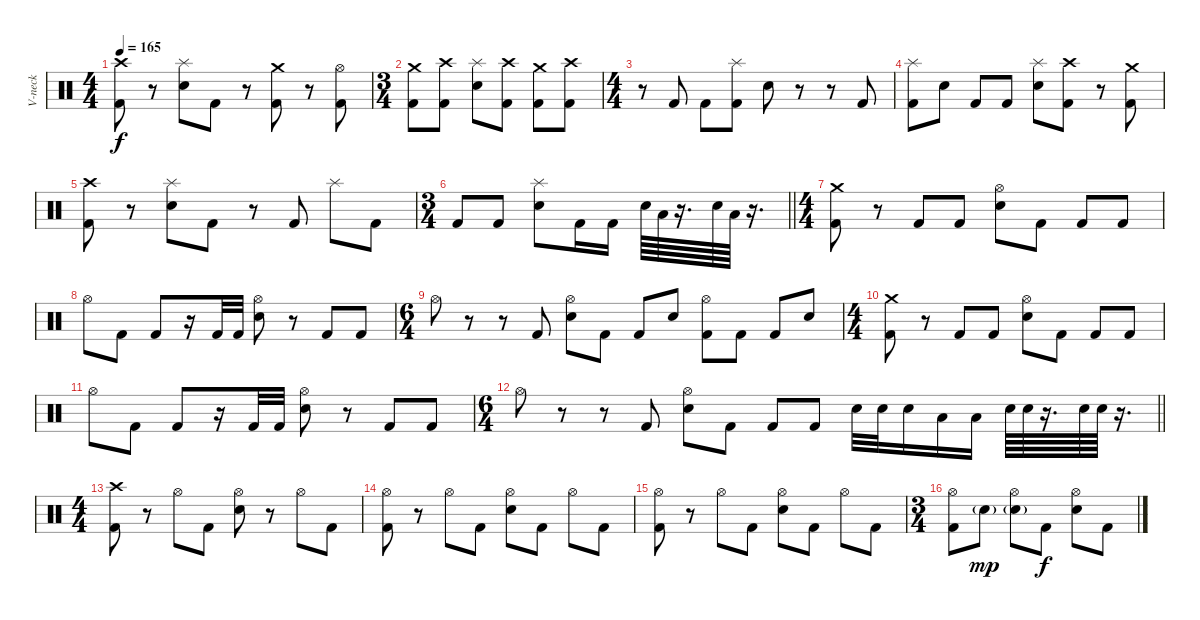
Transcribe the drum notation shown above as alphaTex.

\track ("V-neck" "V-neck") {instrument percussion}
\staff {score}
\articulation defaults
\ts (4 4)
\tempo 165
\clef neutral
\ks c
("Crash high (hit)" "Kick (hit) 2").8{dy f} r.8 ("Splash (hit)" "Electric Snare (hit)").8 "Kick (hit) 2".8 r.8 ("Crash medium (hit)" "Kick (hit) 2").8 r.8 ("Hi-Hat (open)" "Kick (hit) 2").8 |
\ts (3 4)
("Crash medium (hit)" "Kick (hit) 2").8 ("Crash high (hit)" "Kick (hit) 2").8 ("Splash (hit)" "Electric Snare (hit)").8 ("Crash high (hit)" "Kick (hit) 2").8 ("Crash medium (hit)" "Kick (hit) 2").8 ("Crash high (hit)" "Kick (hit) 2").8 |
\ts (4 4)
r.8 "Kick (hit) 2".8 "Kick (hit) 2".8 ("Splash (hit)" "Kick (hit) 2").8 "Electric Snare (hit)".8 r.8 r.8 "Kick (hit) 2".8 |
("Splash (hit)" "Kick (hit) 2").8 "Electric Snare (hit)".8 "Kick (hit) 2".8 "Kick (hit) 2".8 ("Splash (hit)" "Electric Snare (hit)").8 ("Crash high (hit)" "Kick (hit) 2").8 r.8 ("Crash medium (hit)" "Kick (hit) 2").8 |
("Crash high (hit)" "Kick (hit) 2").8 r.8 ("Splash (hit)" "Electric Snare (hit)").8 "Kick (hit) 2".8 r.8 "Kick (hit) 2".8 "Splash (hit)".8 "Kick (hit) 2".8 |
\ts (3 4)
\barLineRight lightlight "Kick (hit) 2".8 "Kick (hit) 2".8
("Splash (hit)" "Electric Snare (hit)").8 "Kick (hit) 2".16 "Kick (hit) 2".16 "Electric Snare (hit)".64 "Low Tom (hit)".64 r.16{d} "Electric Snare (hit)".64 "Low Tom (hit)".64 r.16{d} |
\ts (4 4)
\section ("" "")
("Crash medium (hit)" "Kick (hit) 2").8 r.8 "Kick (hit) 2".8 "Kick (hit) 2".8 ("Hi-Hat (open)" "Electric Snare (hit)").8 "Kick (hit) 2".8 "Kick (hit) 2".8 "Kick (hit) 2".8 |
"Hi-Hat (open)".8 "Kick (hit) 2".8 "Kick (hit) 2".8 r.16 "Kick (hit) 2".32 "Kick (hit) 2".32 ("Hi-Hat (open)" "Electric Snare (hit)").8 r.8 "Kick (hit) 2".8 "Kick (hit) 2".8 |
\ts (6 4)
"Hi-Hat (open)".8 r.8 r.8 "Kick (hit) 2".8 ("Hi-Hat (open)" "Electric Snare (hit)").8 "Kick (hit) 2".8 "Kick (hit) 2".8 "Electric Snare (hit)".8 ("Hi-Hat (open)" "Kick (hit) 2").8 "Kick (hit) 2".8 "Kick (hit) 2".8 "Electric Snare (hit)".8 |
\ts (4 4)
("Crash medium (hit)" "Kick (hit) 2").8 r.8 "Kick (hit) 2".8 "Kick (hit) 2".8 ("Hi-Hat (open)" "Electric Snare (hit)").8 "Kick (hit) 2".8 "Kick (hit) 2".8 "Kick (hit) 2".8 |
"Hi-Hat (open)".8 "Kick (hit) 2".8 "Kick (hit) 2".8 r.16 "Kick (hit) 2".32 "Kick (hit) 2".32 ("Hi-Hat (open)" "Electric Snare (hit)").8 r.8 "Kick (hit) 2".8 "Kick (hit) 2".8 |
\ts (6 4)
\barLineRight lightlight "Hi-Hat (open)".8
r.8 r.8 "Kick (hit) 2".8 ("Hi-Hat (open)" "Electric Snare (hit)").8 "Kick (hit) 2".8 "Kick (hit) 2".8 "Kick (hit) 2".8 "Electric Snare (hit)".32 "Electric Snare (hit)".32 "Electric Snare (hit)".16 "Low Tom (hit)".16 "Low Tom (hit)".16 "Electric Snare (hit)".64 "Electric Snare (hit)".64 r.16{d} "Electric Snare (hit)".64 "Electric Snare (hit)".64 r.16{d} |
\ts (4 4)
\section ("" "")
("Crash high (hit)" "Kick (hit) 2").8 r.8 "Hi-Hat (open)".8 "Kick (hit) 2".8 ("Hi-Hat (open)" "Electric Snare (hit)").8 r.8 "Hi-Hat (open)".8 "Kick (hit) 2".8 |
("Hi-Hat (open)" "Kick (hit) 2").8 r.8 "Hi-Hat (open)".8 "Kick (hit) 2".8 ("Hi-Hat (open)" "Electric Snare (hit)").8 "Kick (hit) 2".8 "Hi-Hat (open)".8 "Kick (hit) 2".8 |
("Hi-Hat (open)" "Kick (hit) 2").8 r.8 "Hi-Hat (open)".8 "Kick (hit) 2".8 ("Hi-Hat (open)" "Electric Snare (hit)").8 "Kick (hit) 2".8 "Hi-Hat (open)".8 "Kick (hit) 2".8 |
\ts (3 4)
("Hi-Hat (open)" "Kick (hit) 2").8 "Electric Snare (hit)"{g}.8{dy mp} ("Hi-Hat (open)" "Electric Snare (hit)"{g}).8 "Kick (hit) 2".8{dy f} ("Hi-Hat (open)" "Electric Snare (hit)").8 "Kick (hit) 2".8
